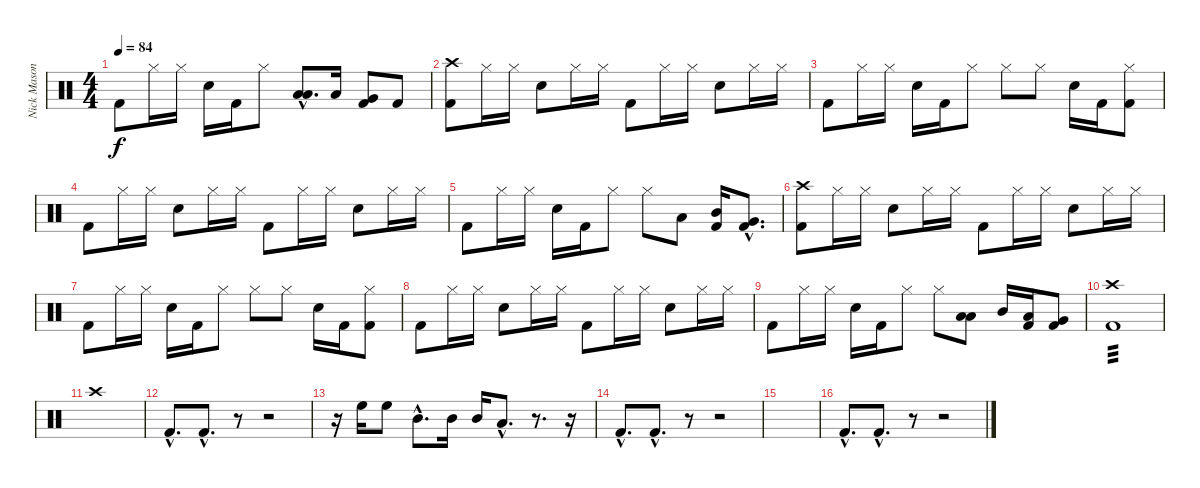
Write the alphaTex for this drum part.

\track ("Nick Mason" "Nick Mason") {instrument percussion}
\staff {score}
\articulation defaults
\ts (4 4)
\tempo 84
\clef neutral
\ks c "Kick (hit) 2".8{dy f} "Hi-Hat (closed)".16 "Hi-Hat (closed)".16 "Snare (hit) 2".16 "Kick (hit) 2".16 "Hi-Hat (closed)".8
("Low Tom (hit)"{hac} "Low Tom (hit)"{hac}).8{d} "Low Tom (hit)".16 ("Very Low Tom (hit)" "Kick (hit) 2").8 "Kick (hit) 2".8 |
("Crash high (hit)" "Kick (hit) 2").8 "Hi-Hat (closed)".16 "Hi-Hat (closed)".16 "Snare (hit) 2".8 "Hi-Hat (closed)".16 "Hi-Hat (closed)".16 "Kick (hit) 2".8 "Hi-Hat (closed)".16 "Hi-Hat (closed)".16 "Snare (hit) 2".8 "Hi-Hat (closed)".16 "Hi-Hat (closed)".16 |
"Kick (hit) 2".8 "Hi-Hat (closed)".16 "Hi-Hat (closed)".16 "Snare (hit) 2".16 "Kick (hit) 2".16 "Hi-Hat (closed)".8 "Hi-Hat (closed)".8 "Hi-Hat (closed)".8 "Snare (hit) 2".16 "Kick (hit) 2".16 ("Hi-Hat (closed)" "Kick (hit) 2").8 |
"Kick (hit) 2".8 "Hi-Hat (closed)".16 "Hi-Hat (closed)".16 "Snare (hit) 2".8 "Hi-Hat (closed)".16 "Hi-Hat (closed)".16 "Kick (hit) 2".8 "Hi-Hat (closed)".16 "Hi-Hat (closed)".16 "Snare (hit) 2".8 "Hi-Hat (closed)".16 "Hi-Hat (closed)".16 |
"Kick (hit) 2".8 "Hi-Hat (closed)".16 "Hi-Hat (closed)".16 "Snare (hit) 2".16 "Kick (hit) 2".16 "Hi-Hat (closed)".8 "Hi-Hat (closed)".8 "Low Tom (hit)".8 ("Mid Tom (hit)" "Kick (hit) 2").16 ("Very Low Tom (hit)"{hac} "Kick (hit) 2"{hac}).8{d} |
("Crash high (hit)" "Kick (hit) 2").8 "Hi-Hat (closed)".16 "Hi-Hat (closed)".16 "Snare (hit) 2".8 "Hi-Hat (closed)".16 "Hi-Hat (closed)".16 "Kick (hit) 2".8 "Hi-Hat (closed)".16 "Hi-Hat (closed)".16 "Snare (hit) 2".8 "Hi-Hat (closed)".16 "Hi-Hat (closed)".16 |
"Kick (hit) 2".8 "Hi-Hat (closed)".16 "Hi-Hat (closed)".16 "Snare (hit) 2".16 "Kick (hit) 2".16 "Hi-Hat (closed)".8 "Hi-Hat (closed)".8 "Hi-Hat (closed)".8 "Snare (hit) 2".16 "Kick (hit) 2".16 ("Hi-Hat (closed)" "Kick (hit) 2").8 |
"Kick (hit) 2".8 "Hi-Hat (closed)".16 "Hi-Hat (closed)".16 "Snare (hit) 2".8 "Hi-Hat (closed)".16 "Hi-Hat (closed)".16 "Kick (hit) 2".8 "Hi-Hat (closed)".16 "Hi-Hat (closed)".16 "Snare (hit) 2".8 "Hi-Hat (closed)".16 "Hi-Hat (closed)".16 |
"Kick (hit) 2".8 "Hi-Hat (closed)".16 "Hi-Hat (closed)".16 "Snare (hit) 2".16 "Kick (hit) 2".16 "Hi-Hat (closed)".8 "Hi-Hat (closed)".8 ("Low Tom (hit)" "Low Tom (hit)").8 "Mid Tom (hit)".16 ("Low Tom (hit)" "Kick (hit) 2").16 ("Very Low Tom (hit)" "Kick (hit) 2").8 |
("Crash high (hit)" "Kick (hit) 2").1{tp 3} |
"Crash high (hit)".1 |
"Kick (hit) 2"{hac}.8{d volume 16} "Kick (hit) 2"{hac}.8{d} r.8 r.2 |
r.16 "High Floor Tom (hit)".16 "High Floor Tom (hit)".8 "Mid Tom (hit)"{hac}.8{d} "Mid Tom (hit)".16 "Mid Tom (hit)".16 "Low Tom (hit)"{hac}.8{d} r.8{d} r.16 |
"Kick (hit) 2"{hac}.8{d} "Kick (hit) 2"{hac}.8{d} r.8 r.2 |
|
"Kick (hit) 2"{hac}.8{d} "Kick (hit) 2"{hac}.8{d} r.8 r.2
